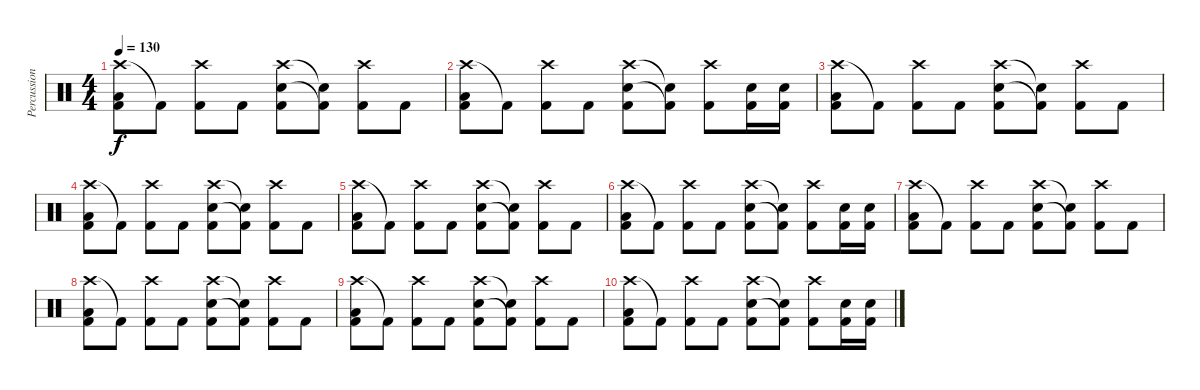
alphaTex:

\track ("Percussions" "Percussion") {instrument percussion}
\staff {score}
\articulation defaults
\ts (4 4)
\tempo 130
\clef neutral
\ks c
("Crash high (hit)" "Low Tom (hit)" "Kick (hit) 2").8{dy f} "Kick (hit) 2"{t}.8 ("Crash high (hit)" "Kick (hit) 2").8 "Kick (hit) 2".8 ("Crash high (hit)" "Snare (hit) 2" "Kick (hit) 2").8 ("Snare (hit)"{t} "Kick (hit) 2"{t}).8 ("Crash high (hit)" "Kick (hit) 2").8 "Kick (hit) 2".8 |
("Crash high (hit)" "Low Tom (hit)" "Kick (hit) 2").8 "Kick (hit) 2"{t}.8 ("Crash high (hit)" "Kick (hit) 2").8 "Kick (hit) 2".8 ("Crash high (hit)" "Snare (hit) 2" "Kick (hit) 2").8 ("Snare (hit)"{t} "Kick (hit) 2"{t}).8 ("Crash high (hit)" "Kick (hit) 2").8 ("Snare (hit) 2" "Kick (hit) 2").16 ("Snare (hit) 2" "Kick (hit) 2").16 |
("Crash high (hit)" "Low Tom (hit)" "Kick (hit) 2").8 "Kick (hit) 2"{t}.8 ("Crash high (hit)" "Kick (hit) 2").8 "Kick (hit) 2".8 ("Crash high (hit)" "Snare (hit) 2" "Kick (hit) 2").8 ("Snare (hit)"{t} "Kick (hit) 2"{t}).8 ("Crash high (hit)" "Kick (hit) 2").8 "Kick (hit) 2".8 |
("Crash high (hit)" "Low Tom (hit)" "Kick (hit) 2").8 "Kick (hit) 2"{t}.8 ("Crash high (hit)" "Kick (hit) 2").8 "Kick (hit) 2".8 ("Crash high (hit)" "Snare (hit) 2" "Kick (hit) 2").8 ("Snare (hit)"{t} "Kick (hit) 2"{t}).8 ("Crash high (hit)" "Kick (hit) 2").8 "Kick (hit) 2".8 |
("Crash high (hit)" "Low Tom (hit)" "Kick (hit) 2").8 "Kick (hit) 2"{t}.8 ("Crash high (hit)" "Kick (hit) 2").8 "Kick (hit) 2".8 ("Crash high (hit)" "Snare (hit) 2" "Kick (hit) 2").8 ("Snare (hit)"{t} "Kick (hit) 2"{t}).8 ("Crash high (hit)" "Kick (hit) 2").8 "Kick (hit) 2".8 |
("Crash high (hit)" "Low Tom (hit)" "Kick (hit) 2").8 "Kick (hit) 2"{t}.8 ("Crash high (hit)" "Kick (hit) 2").8 "Kick (hit) 2".8 ("Crash high (hit)" "Snare (hit) 2" "Kick (hit) 2").8 ("Snare (hit)"{t} "Kick (hit) 2"{t}).8 ("Crash high (hit)" "Kick (hit) 2").8 ("Snare (hit) 2" "Kick (hit) 2").16 ("Snare (hit) 2" "Kick (hit) 2").16 |
("Crash high (hit)" "Low Tom (hit)" "Kick (hit) 2").8 "Kick (hit) 2"{t}.8 ("Crash high (hit)" "Kick (hit) 2").8 "Kick (hit) 2".8 ("Crash high (hit)" "Snare (hit) 2" "Kick (hit) 2").8 ("Snare (hit)"{t} "Kick (hit) 2"{t}).8 ("Crash high (hit)" "Kick (hit) 2").8 "Kick (hit) 2".8 |
("Crash high (hit)" "Low Tom (hit)" "Kick (hit) 2").8 "Kick (hit) 2"{t}.8 ("Crash high (hit)" "Kick (hit) 2").8 "Kick (hit) 2".8 ("Crash high (hit)" "Snare (hit) 2" "Kick (hit) 2").8 ("Snare (hit)"{t} "Kick (hit) 2"{t}).8 ("Crash high (hit)" "Kick (hit) 2").8 "Kick (hit) 2".8 |
("Crash high (hit)" "Low Tom (hit)" "Kick (hit) 2").8 "Kick (hit) 2"{t}.8 ("Crash high (hit)" "Kick (hit) 2").8 "Kick (hit) 2".8 ("Crash high (hit)" "Snare (hit) 2" "Kick (hit) 2").8 ("Snare (hit)"{t} "Kick (hit) 2"{t}).8 ("Crash high (hit)" "Kick (hit) 2").8 "Kick (hit) 2".8 |
("Crash high (hit)" "Low Tom (hit)" "Kick (hit) 2").8 "Kick (hit) 2"{t}.8 ("Crash high (hit)" "Kick (hit) 2").8 "Kick (hit) 2".8 ("Crash high (hit)" "Snare (hit) 2" "Kick (hit) 2").8 ("Snare (hit)"{t} "Kick (hit) 2"{t}).8 ("Crash high (hit)" "Kick (hit) 2").8 ("Snare (hit) 2" "Kick (hit) 2").16 ("Snare (hit) 2" "Kick (hit) 2").16
